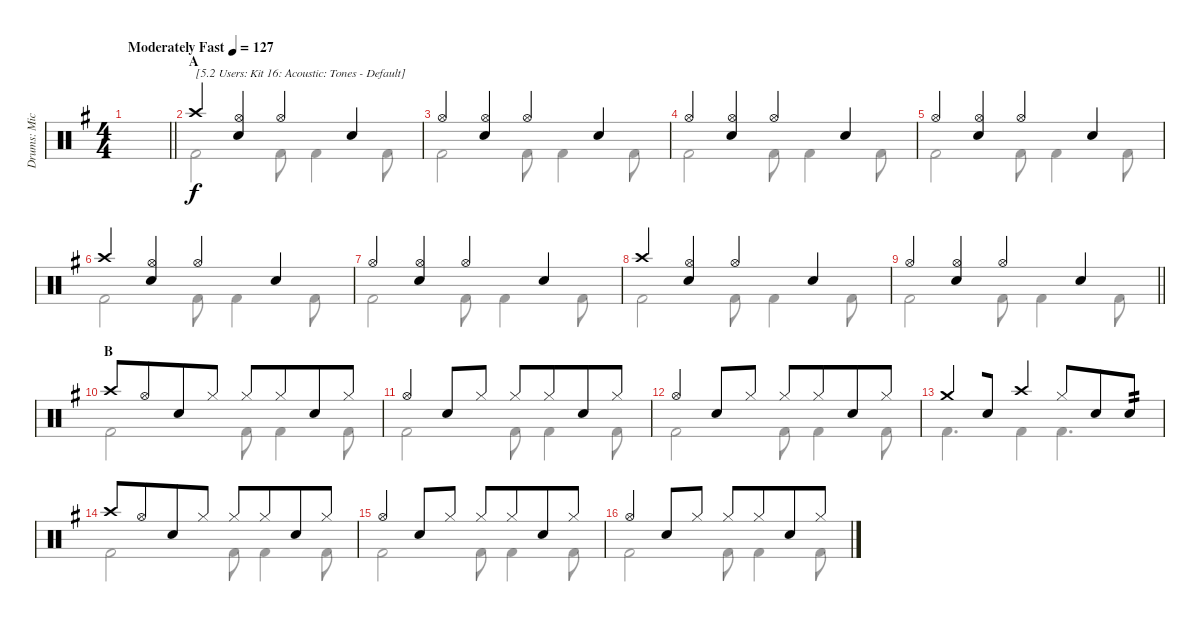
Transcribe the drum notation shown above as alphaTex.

\track ("Drums: Mick" "Drums: Mic") {instrument percussion}
\staff {score}
\articulation defaults
\voice
\ts (4 4)
\tempo (127 "Moderately Fast")
\clef neutral
\barLineRight lightlight
\ks g
|
\section ("" "A")
"Crash high (hit)".4{txt "[5.2 Users: Kit 16: Acoustic: Tones - Default]"} ("Hi-Hat (open)" "Electric Snare (hit)").4 "Hi-Hat (open)".4 "Electric Snare (hit)".4 |
"Hi-Hat (open)".4 ("Hi-Hat (open)" "Electric Snare (hit)").4 "Hi-Hat (open)".4 "Electric Snare (hit)".4 |
"Hi-Hat (open)".4 ("Hi-Hat (open)" "Electric Snare (hit)").4 "Hi-Hat (open)".4 "Electric Snare (hit)".4 |
"Hi-Hat (open)".4 ("Hi-Hat (open)" "Electric Snare (hit)").4 "Hi-Hat (open)".4 "Electric Snare (hit)".4 |
"Crash high (hit)".4 ("Hi-Hat (open)" "Electric Snare (hit)").4 "Hi-Hat (open)".4 "Electric Snare (hit)".4 |
"Hi-Hat (open)".4 ("Hi-Hat (open)" "Electric Snare (hit)").4 "Hi-Hat (open)".4 "Electric Snare (hit)".4 |
"Crash high (hit)".4 ("Hi-Hat (open)" "Electric Snare (hit)").4 "Hi-Hat (open)".4 "Electric Snare (hit)".4 |
\barLineRight lightlight "Hi-Hat (open)".4
("Hi-Hat (open)" "Electric Snare (hit)").4 "Hi-Hat (open)".4 "Electric Snare (hit)".4 |
\section ("" "B")
"Crash high (hit)".8 "Hi-Hat (open)".8{beam merge} "Electric Snare (hit)".8 "Hi-Hat (closed)".8 "Hi-Hat (closed)".8 "Hi-Hat (closed)".8{beam merge} "Electric Snare (hit)".8 "Hi-Hat (closed)".8 |
"Hi-Hat (open)".4{beam merge} "Electric Snare (hit)".8 "Hi-Hat (closed)".8 "Hi-Hat (closed)".8 "Hi-Hat (closed)".8{beam merge} "Electric Snare (hit)".8 "Hi-Hat (closed)".8 |
"Hi-Hat (open)".4{beam merge} "Electric Snare (hit)".8 "Hi-Hat (closed)".8 "Hi-Hat (closed)".8 "Hi-Hat (closed)".8{beam merge} "Electric Snare (hit)".8 "Hi-Hat (closed)".8 |
"Crash medium (hit)".4{beam merge} "Electric Snare (hit)".8 "Crash high (hit)".4 "Hi-Hat (closed)".8{beam merge} "Electric Snare (hit)".8 "Electric Snare (hit)".8{tp 2} |
"Crash high (hit)".8 "Hi-Hat (open)".8{beam merge} "Electric Snare (hit)".8 "Hi-Hat (closed)".8 "Hi-Hat (closed)".8 "Hi-Hat (closed)".8{beam merge} "Electric Snare (hit)".8 "Hi-Hat (closed)".8 |
"Hi-Hat (open)".4{beam merge} "Electric Snare (hit)".8 "Hi-Hat (closed)".8 "Hi-Hat (closed)".8 "Hi-Hat (closed)".8{beam merge} "Electric Snare (hit)".8 "Hi-Hat (closed)".8 |
"Hi-Hat (open)".4{beam merge} "Electric Snare (hit)".8 "Hi-Hat (closed)".8 "Hi-Hat (closed)".8 "Hi-Hat (closed)".8{beam merge} "Electric Snare (hit)".8 "Hi-Hat (closed)".8
\voice
\clef neutral
\ottava regular
\simile none
\barLineRight lightlight
\ks g
|
"Kick (hit) 2".2 "Kick (hit) 2".8 "Kick (hit) 2".4 "Kick (hit) 2".8 |
"Kick (hit) 2".2 "Kick (hit) 2".8 "Kick (hit) 2".4 "Kick (hit) 2".8 |
"Kick (hit) 2".2 "Kick (hit) 2".8 "Kick (hit) 2".4 "Kick (hit) 2".8 |
"Kick (hit) 2".2 "Kick (hit) 2".8 "Kick (hit) 2".4 "Kick (hit) 2".8 |
"Kick (hit) 2".2 "Kick (hit) 2".8 "Kick (hit) 2".4 "Kick (hit) 2".8 |
"Kick (hit) 2".2 "Kick (hit) 2".8 "Kick (hit) 2".4 "Kick (hit) 2".8 |
"Kick (hit) 2".2 "Kick (hit) 2".8 "Kick (hit) 2".4 "Kick (hit) 2".8 |
\barLineRight lightlight "Kick (hit) 2".2 "Kick (hit) 2".8 "Kick (hit) 2".4 "Kick (hit) 2".8
|
"Kick (hit) 2".2 "Kick (hit) 2".8 "Kick (hit) 2".4 "Kick (hit) 2".8 |
"Kick (hit) 2".2 "Kick (hit) 2".8 "Kick (hit) 2".4 "Kick (hit) 2".8 |
"Kick (hit) 2".2 "Kick (hit) 2".8 "Kick (hit) 2".4 "Kick (hit) 2".8 |
"Kick (hit) 2".4{d} "Kick (hit) 2".4 "Kick (hit) 2".4{d} |
"Kick (hit) 2".2 "Kick (hit) 2".8 "Kick (hit) 2".4 "Kick (hit) 2".8 |
"Kick (hit) 2".2 "Kick (hit) 2".8 "Kick (hit) 2".4 "Kick (hit) 2".8 |
"Kick (hit) 2".2 "Kick (hit) 2".8 "Kick (hit) 2".4 "Kick (hit) 2".8
